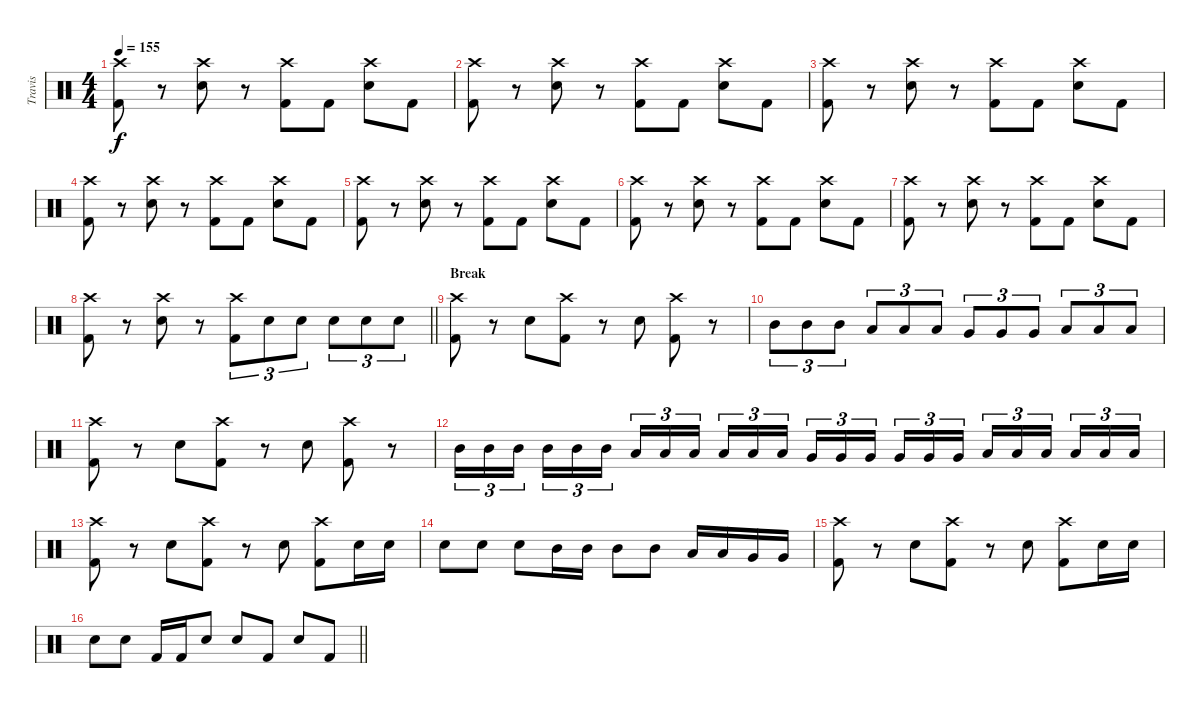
\track ("Travis" "Travis") {instrument percussion}
\staff {score}
\articulation defaults
\ts (4 4)
\tempo 155
\clef neutral
\ks c
("Crash high (hit)" "Kick (hit) 2").8{dy f} r.8 ("Crash high (hit)" "Electric Snare (hit)").8 r.8 ("Crash high (hit)" "Kick (hit) 2").8 "Kick (hit) 2".8 ("Crash high (hit)" "Electric Snare (hit)").8 "Kick (hit) 2".8 |
("Crash high (hit)" "Kick (hit) 2").8 r.8 ("Crash high (hit)" "Electric Snare (hit)").8 r.8 ("Crash high (hit)" "Kick (hit) 2").8 "Kick (hit) 2".8 ("Crash high (hit)" "Electric Snare (hit)").8 "Kick (hit) 2".8 |
("Crash high (hit)" "Kick (hit) 2").8 r.8 ("Crash high (hit)" "Electric Snare (hit)").8 r.8 ("Crash high (hit)" "Kick (hit) 2").8 "Kick (hit) 2".8 ("Crash high (hit)" "Electric Snare (hit)").8 "Kick (hit) 2".8 |
("Crash high (hit)" "Kick (hit) 2").8 r.8 ("Crash high (hit)" "Electric Snare (hit)").8 r.8 ("Crash high (hit)" "Kick (hit) 2").8 "Kick (hit) 2".8 ("Crash high (hit)" "Electric Snare (hit)").8 "Kick (hit) 2".8 |
("Crash high (hit)" "Kick (hit) 2").8 r.8 ("Crash high (hit)" "Electric Snare (hit)").8 r.8 ("Crash high (hit)" "Kick (hit) 2").8 "Kick (hit) 2".8 ("Crash high (hit)" "Electric Snare (hit)").8 "Kick (hit) 2".8 |
("Crash high (hit)" "Kick (hit) 2").8 r.8 ("Crash high (hit)" "Electric Snare (hit)").8 r.8 ("Crash high (hit)" "Kick (hit) 2").8 "Kick (hit) 2".8 ("Crash high (hit)" "Electric Snare (hit)").8 "Kick (hit) 2".8 |
("Crash high (hit)" "Kick (hit) 2").8 r.8 ("Crash high (hit)" "Electric Snare (hit)").8 r.8 ("Crash high (hit)" "Kick (hit) 2").8 "Kick (hit) 2".8 ("Crash high (hit)" "Electric Snare (hit)").8 "Kick (hit) 2".8 |
\barLineRight lightlight
("Crash high (hit)" "Kick (hit) 2").8 r.8 ("Crash high (hit)" "Electric Snare (hit)").8 r.8 ("Crash high (hit)" "Kick (hit) 2").8{tu (3 2)} "Electric Snare (hit)".8{tu (3 2)} "Electric Snare (hit)".8{tu (3 2)} "Electric Snare (hit)".8{tu (3 2)} "Electric Snare (hit)".8{tu (3 2)} "Electric Snare (hit)".8{tu (3 2)} |
\section ("" "Break")
("Crash high (hit)" "Kick (hit) 2").8 r.8 "Electric Snare (hit)".8 ("Crash high (hit)" "Kick (hit) 2").8 r.8 "Electric Snare (hit)".8 ("Crash high (hit)" "Kick (hit) 2").8 r.8 |
"Mid Tom (hit)".8{tu (3 2)} "Mid Tom (hit)".8{tu (3 2)} "Mid Tom (hit)".8{tu (3 2)} "Low Tom (hit)".8{tu (3 2)} "Low Tom (hit)".8{tu (3 2)} "Low Tom (hit)".8{tu (3 2)} "Very Low Tom (hit)".8{tu (3 2)} "Very Low Tom (hit)".8{tu (3 2)} "Very Low Tom (hit)".8{tu (3 2)} "Low Floor Tom (hit)".8{tu (3 2)} "Low Floor Tom (hit)".8{tu (3 2)} "Low Floor Tom (hit)".8{tu (3 2)} |
("Crash high (hit)" "Kick (hit) 2").8 r.8 "Electric Snare (hit)".8 ("Crash high (hit)" "Kick (hit) 2").8 r.8 "Electric Snare (hit)".8 ("Crash high (hit)" "Kick (hit) 2").8 r.8 |
"Mid Tom (hit)".16{tu (3 2)} "Mid Tom (hit)".16{tu (3 2)} "Mid Tom (hit)".16{tu (3 2) beam splitsecondary} "Mid Tom (hit)".16{tu (3 2)} "Mid Tom (hit)".16{tu (3 2)} "Mid Tom (hit)".16{tu (3 2)} "Low Tom (hit)".16{tu (3 2)} "Low Tom (hit)".16{tu (3 2)} "Low Tom (hit)".16{tu (3 2) beam splitsecondary} "Low Tom (hit)".16{tu (3 2)} "Low Tom (hit)".16{tu (3 2)} "Low Tom (hit)".16{tu (3 2)} "Very Low Tom (hit)".16{tu (3 2)} "Very Low Tom (hit)".16{tu (3 2)} "Very Low Tom (hit)".16{tu (3 2) beam splitsecondary} "Very Low Tom (hit)".16{tu (3 2)} "Very Low Tom (hit)".16{tu (3 2)} "Very Low Tom (hit)".16{tu (3 2)} "Low Floor Tom (hit)".16{tu (3 2)} "Low Floor Tom (hit)".16{tu (3 2)} "Low Floor Tom (hit)".16{tu (3 2) beam splitsecondary} "Low Floor Tom (hit)".16{tu (3 2)} "Low Floor Tom (hit)".16{tu (3 2)} "Low Floor Tom (hit)".16{tu (3 2)} |
("Crash high (hit)" "Kick (hit) 2").8 r.8 "Electric Snare (hit)".8 ("Crash high (hit)" "Kick (hit) 2").8 r.8 "Electric Snare (hit)".8 ("Crash high (hit)" "Kick (hit) 2").8 "Electric Snare (hit)".16 "Electric Snare (hit)".16 |
"Electric Snare (hit)".8 "Electric Snare (hit)".8 "Electric Snare (hit)".8 "Mid Tom (hit)".16 "Mid Tom (hit)".16 "Mid Tom (hit)".8 "Mid Tom (hit)".8 "Low Tom (hit)".16 "Low Tom (hit)".16 "Very Low Tom (hit)".16 "Very Low Tom (hit)".16 |
("Crash high (hit)" "Kick (hit) 2").8 r.8 "Electric Snare (hit)".8 ("Crash high (hit)" "Kick (hit) 2").8 r.8 "Electric Snare (hit)".8 ("Crash high (hit)" "Kick (hit) 2").8 "Electric Snare (hit)".16 "Electric Snare (hit)".16 |
\barLineRight lightlight "Electric Snare (hit)".8 "Electric Snare (hit)".8 "Kick (hit) 2".16 "Kick (hit) 2".16 "Electric Snare (hit)".8 "Electric Snare (hit)".8 "Kick (hit) 2".8 "Electric Snare (hit)".8 "Kick (hit) 2".8
